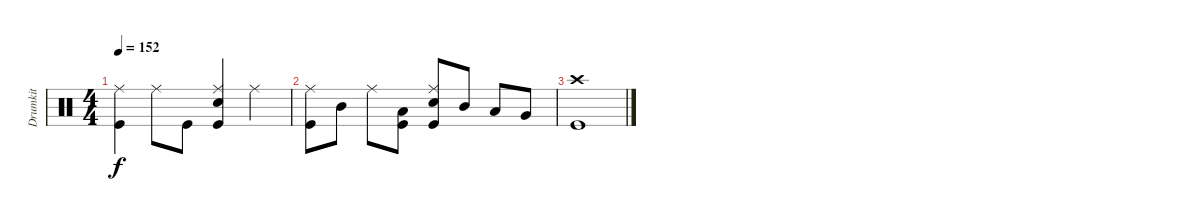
\track ("Drumkit" "Drumkit") {instrument percussion}
\staff {score}
\articulation defaults
\ts (4 4)
\tempo 152
\clef neutral
\ks c
("Kick (hit)" "Ride (middle)").4{dy f} "Ride (middle)".8 "Kick (hit)".8 ("Snare (hit) 2" "Ride (middle)" "Kick (hit)").4 "Ride (middle)".4 |
("Kick (hit)" "Ride (middle)").8 "Mid Tom (hit)".8 "Ride (middle)".8 ("Kick (hit)" "Low Tom (hit)").8 ("Snare (hit) 2" "Ride (middle)" "Kick (hit)").8 "Mid Tom (hit)".8 "Low Tom (hit)".8 "Very Low Tom (hit)".8 |
("Kick (hit)" "Crash high (hit)").1
